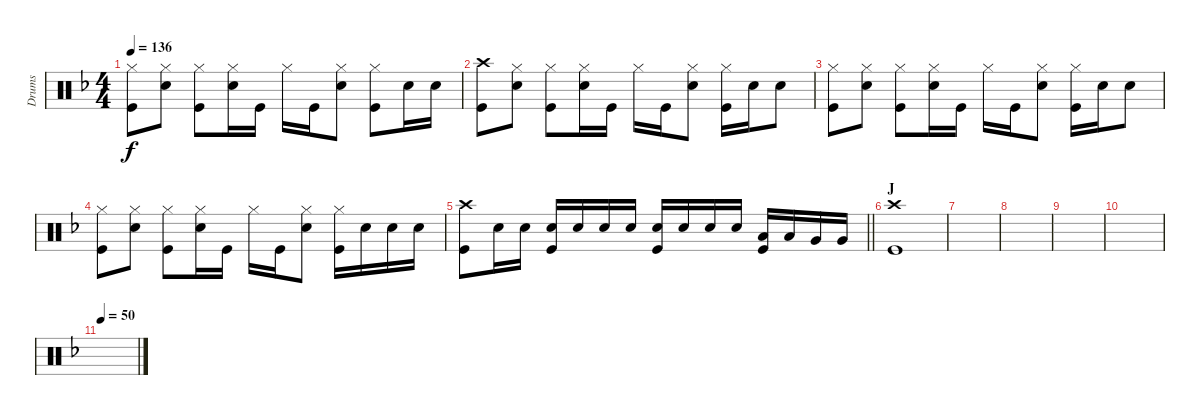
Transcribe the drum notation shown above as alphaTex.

\track ("Drums" "Drums") {instrument percussion}
\staff {score}
\articulation defaults
\ts (4 4)
\tempo 136
\clef neutral
\ks dminor
("Hi-Hat (closed)" "Kick (hit)").8{dy f} ("Hi-Hat (closed)" "Snare (hit) 2").8 ("Kick (hit)" "Hi-Hat (closed)").8 ("Hi-Hat (closed)" "Snare (hit) 2").16 "Kick (hit)".16 "Hi-Hat (closed)".16 "Kick (hit)".16 ("Hi-Hat (closed)" "Snare (hit) 2").8 ("Hi-Hat (closed)" "Kick (hit)").8 "Snare (hit) 2".16 "Snare (hit) 2".16 |
("Crash high (hit)" "Kick (hit)").8 ("Hi-Hat (closed)" "Snare (hit) 2").8 ("Kick (hit)" "Hi-Hat (closed)").8 ("Hi-Hat (closed)" "Snare (hit) 2").16 "Kick (hit)".16 "Hi-Hat (closed)".16 "Kick (hit)".16 ("Hi-Hat (closed)" "Snare (hit) 2").8 ("Hi-Hat (closed)" "Kick (hit)").16 "Snare (hit) 2".16 "Snare (hit) 2".8 |
("Hi-Hat (closed)" "Kick (hit)").8 ("Hi-Hat (closed)" "Snare (hit) 2").8 ("Kick (hit)" "Hi-Hat (closed)").8 ("Hi-Hat (closed)" "Snare (hit) 2").16 "Kick (hit)".16 "Hi-Hat (closed)".16 "Kick (hit)".16 ("Hi-Hat (closed)" "Snare (hit) 2").8 ("Hi-Hat (closed)" "Kick (hit)").16 "Snare (hit) 2".16 "Snare (hit) 2".8 |
("Hi-Hat (closed)" "Kick (hit)").8 ("Hi-Hat (closed)" "Snare (hit) 2").8 ("Kick (hit)" "Hi-Hat (closed)").8 ("Hi-Hat (closed)" "Snare (hit) 2").16 "Kick (hit)".16 "Hi-Hat (closed)".16 "Kick (hit)".16 ("Hi-Hat (closed)" "Snare (hit) 2").8 ("Hi-Hat (closed)" "Kick (hit)").16 "Snare (hit) 2".16 "Snare (hit) 2".16 "Snare (hit) 2".16 |
\barLineRight lightlight
("Kick (hit)" "Crash high (hit)").8 "Snare (hit) 2".16 "Snare (hit) 2".16 ("Snare (hit) 2" "Kick (hit)").16 "Snare (hit) 2".16 "Snare (hit) 2".16 "Snare (hit) 2".16 ("Snare (hit) 2" "Kick (hit)").16 "Snare (hit) 2".16 "Snare (hit) 2".16 "Snare (hit) 2".16 ("Low Tom (hit)" "Kick (hit)").16 "Low Tom (hit)".16 "Very Low Tom (hit)".16 "Very Low Tom (hit)".16 |
\section ("" "J")
("Crash high (hit)" "Kick (hit)").1 |
|
|
|
|
\tempo 50
